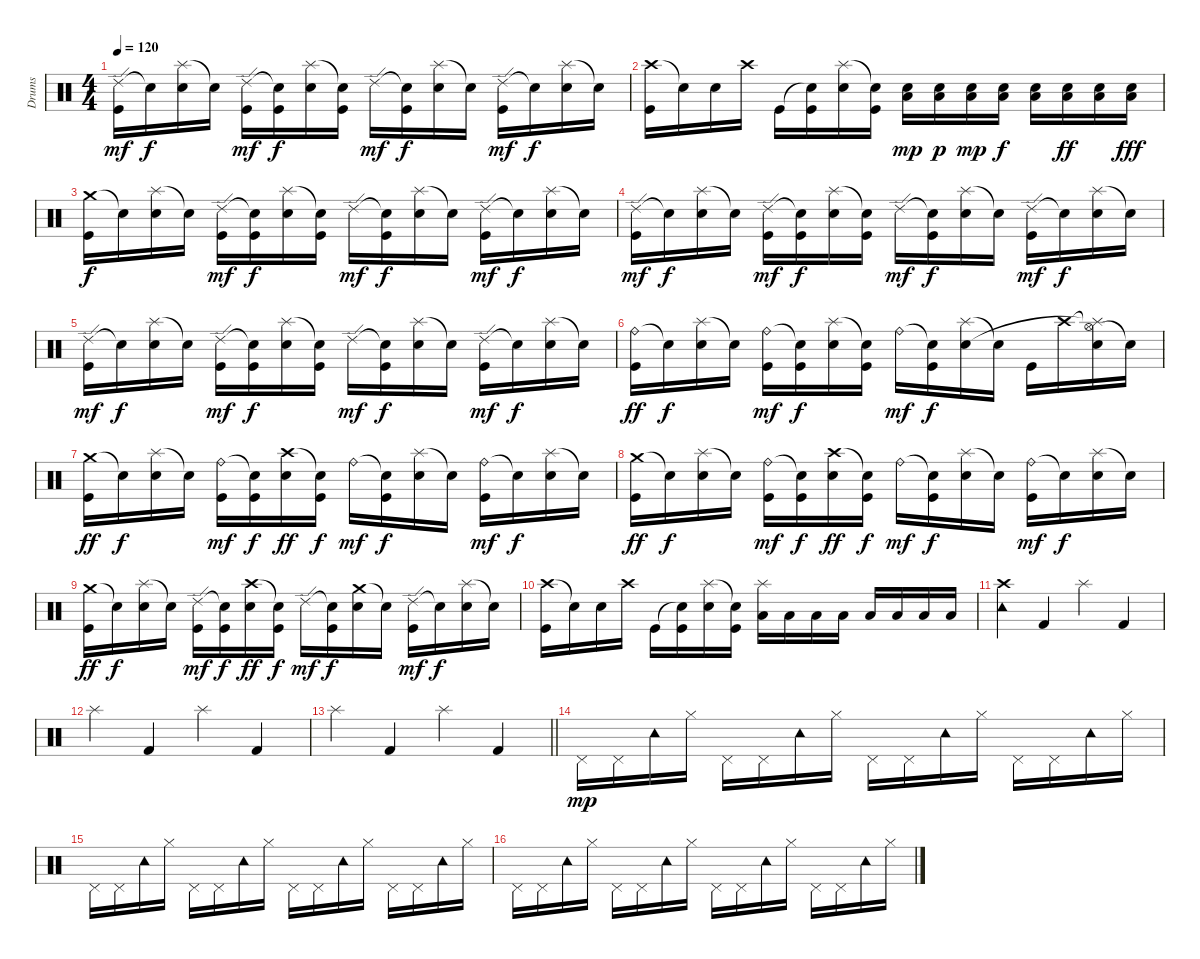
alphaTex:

\track ("Drums" "Drums") {instrument percussion}
\staff {score}
\articulation defaults
\ts (4 4)
\tempo 120
\clef neutral
\ks c
("Ride (edge) 2" "Kick (hit)").16{dy mf} "Snare (hit)"{t}.16{dy f} ("Splash (hit)" "Electric Snare (hit)").16 "Snare (hit)"{t}.16 ("Ride (edge) 2" "Kick (hit)").16{dy mf} ("Snare (hit)"{t} "Kick (hit)").16{dy f} ("Splash (hit)" "Electric Snare (hit)").16 ("Snare (hit)"{t} "Kick (hit)").16 "Ride (edge) 2".16{dy mf} ("Snare (hit)"{t} "Kick (hit)").16{dy f} ("Splash (hit)" "Electric Snare (hit)").16 "Snare (hit)"{t}.16 ("Ride (edge) 2" "Kick (hit)").16{dy mf} "Snare (hit)"{t}.16{dy f} ("Splash (hit)" "Electric Snare (hit)").16 "Snare (hit)"{t}.16 |
("Crash high (hit)" "Kick (hit)").16 "Snare (hit)"{t}.16 "Electric Snare (hit)".16 "Crash high (hit)".16 "Kick (hit)".16 ("Snare (hit)"{t} "Kick (hit)").16 ("Splash (hit)" "Electric Snare (hit)").16 ("Snare (hit)"{t} "Kick (hit)").16 ("Electric Snare (hit)" "Low Tom (hit)").16{dy mp} ("Electric Snare (hit)" "Low Tom (hit)").16{dy p} ("Electric Snare (hit)" "Low Tom (hit)").16{dy mp} ("Electric Snare (hit)" "Low Tom (hit)").16{dy f} ("Electric Snare (hit)" "Low Tom (hit)").16 ("Electric Snare (hit)" "Low Tom (hit)").16{dy ff} ("Electric Snare (hit)" "Low Tom (hit)").16 ("Electric Snare (hit)" "Low Tom (hit)").16{dy fff} |
("Crash medium (hit)" "Kick (hit)").16{dy f} "Snare (hit)"{t}.16 ("Splash (hit)" "Electric Snare (hit)").16 "Snare (hit)"{t}.16 ("Ride (edge) 2" "Kick (hit)").16{dy mf} ("Snare (hit)"{t} "Kick (hit)").16{dy f} ("Splash (hit)" "Electric Snare (hit)").16 ("Snare (hit)"{t} "Kick (hit)").16 "Ride (edge) 2".16{dy mf} ("Snare (hit)"{t} "Kick (hit)").16{dy f} ("Splash (hit)" "Electric Snare (hit)").16 "Snare (hit)"{t}.16 ("Ride (edge) 2" "Kick (hit)").16{dy mf} "Snare (hit)"{t}.16{dy f} ("Splash (hit)" "Electric Snare (hit)").16 "Snare (hit)"{t}.16 |
("Ride (edge) 2" "Kick (hit)").16{dy mf} "Snare (hit)"{t}.16{dy f} ("Splash (hit)" "Electric Snare (hit)").16 "Snare (hit)"{t}.16 ("Ride (edge) 2" "Kick (hit)").16{dy mf} ("Snare (hit)"{t} "Kick (hit)").16{dy f} ("Splash (hit)" "Electric Snare (hit)").16 ("Snare (hit)"{t} "Kick (hit)").16 "Ride (edge) 2".16{dy mf} ("Snare (hit)"{t} "Kick (hit)").16{dy f} ("Splash (hit)" "Electric Snare (hit)").16 "Snare (hit)"{t}.16 ("Ride (edge) 2" "Kick (hit)").16{dy mf} "Snare (hit)"{t}.16{dy f} ("Splash (hit)" "Electric Snare (hit)").16 "Snare (hit)"{t}.16 |
("Ride (edge) 2" "Kick (hit)").16{dy mf} "Snare (hit)"{t}.16{dy f} ("Splash (hit)" "Electric Snare (hit)").16 "Snare (hit)"{t}.16 ("Ride (edge) 2" "Kick (hit)").16{dy mf} ("Snare (hit)"{t} "Kick (hit)").16{dy f} ("Splash (hit)" "Electric Snare (hit)").16 ("Snare (hit)"{t} "Kick (hit)").16 "Ride (edge) 2".16{dy mf} ("Snare (hit)"{t} "Kick (hit)").16{dy f} ("Splash (hit)" "Electric Snare (hit)").16 "Snare (hit)"{t}.16 ("Ride (edge) 2" "Kick (hit)").16{dy mf} "Snare (hit)"{t}.16{dy f} ("Splash (hit)" "Electric Snare (hit)").16 "Snare (hit)"{t}.16 |
("Ride (bell)" "Kick (hit)").16{dy ff} "Snare (hit)"{t}.16{dy f} ("Splash (hit)" "Electric Snare (hit)").16 "Snare (hit)"{t}.16 ("Ride (bell)" "Kick (hit)").16{dy mf} ("Snare (hit)"{t} "Kick (hit)").16{dy f} ("Splash (hit)" "Electric Snare (hit)").16 ("Snare (hit)"{t} "Kick (hit)").16 "Ride (bell)".16{dy mf} ("Snare (hit)"{t} "Kick (hit)").16{dy f} ("Splash (hit)" "Electric Snare (hit)").16 "Snare (hit)"{t}.16 "Kick (hit)".16 "Crash high (hit)".16 ("Hi-Hat (open)"{t} "Splash (hit)"{t} "Electric Snare (hit)").16 "Snare (hit)"{t}.16 |
("Crash medium (hit)" "Kick (hit)").16{dy ff} "Snare (hit)"{t}.16{dy f} ("Splash (hit)" "Electric Snare (hit)").16 "Snare (hit)"{t}.16 ("Ride (bell)" "Kick (hit)").16{dy mf} ("Snare (hit)"{t} "Kick (hit)").16{dy f} ("Crash high (hit)" "Electric Snare (hit)").16{dy ff} ("Snare (hit)"{t} "Kick (hit)").16{dy f} "Ride (bell)".16{dy mf} ("Snare (hit)"{t} "Kick (hit)").16{dy f} ("Splash (hit)" "Electric Snare (hit)").16 "Snare (hit)"{t}.16 ("Ride (bell)" "Kick (hit)").16{dy mf} "Snare (hit)"{t}.16{dy f} ("Splash (hit)" "Electric Snare (hit)").16 "Snare (hit)"{t}.16 |
("Crash medium (hit)" "Kick (hit)").16{dy ff} "Snare (hit)"{t}.16{dy f} ("Splash (hit)" "Electric Snare (hit)").16 "Snare (hit)"{t}.16 ("Ride (bell)" "Kick (hit)").16{dy mf} ("Snare (hit)"{t} "Kick (hit)").16{dy f} ("Crash high (hit)" "Electric Snare (hit)").16{dy ff} ("Snare (hit)"{t} "Kick (hit)").16{dy f} "Ride (bell)".16{dy mf} ("Snare (hit)"{t} "Kick (hit)").16{dy f} ("Splash (hit)" "Electric Snare (hit)").16 "Snare (hit)"{t}.16 ("Ride (bell)" "Kick (hit)").16{dy mf} "Snare (hit)"{t}.16{dy f} ("Splash (hit)" "Electric Snare (hit)").16 "Snare (hit)"{t}.16 |
("Crash medium (hit)" "Kick (hit)").16{dy ff} "Snare (hit)"{t}.16{dy f} ("Splash (hit)" "Electric Snare (hit)").16 "Snare (hit)"{t}.16 ("Ride (edge) 2" "Kick (hit)").16{dy mf} ("Snare (hit)"{t} "Kick (hit)").16{dy f} ("Crash high (hit)" "Electric Snare (hit)").16{dy ff} ("Snare (hit)"{t} "Kick (hit)").16{dy f} "Ride (edge) 2".16{dy mf} ("Snare (hit)"{t} "Kick (hit)").16{dy f} ("Crash medium (hit)" "Electric Snare (hit)").16 "Snare (hit)"{t}.16 ("Ride (edge) 2" "Kick (hit)").16{dy mf} "Snare (hit)"{t}.16{dy f} ("Splash (hit)" "Electric Snare (hit)").16 "Snare (hit)"{t}.16 |
("Crash high (hit)" "Kick (hit)").16 "Snare (hit)"{t}.16 "Electric Snare (hit)".16 "Crash high (hit)".16 "Kick (hit)".16 ("Snare (hit)"{t} "Kick (hit)").16 ("Splash (hit)" "Electric Snare (hit)").16 ("Snare (hit)"{t} "Kick (hit)").16 ("Splash (hit)" "Low Tom (hit)").16 "Low Tom (hit)".16 "Low Tom (hit)".16 "Low Tom (hit)".16 "Low Floor Tom (hit)".16 "Low Floor Tom (hit)".16 "Low Floor Tom (hit)".16 "Low Floor Tom (hit)".16 |
("Crash high (hit)" "Tambourine (hit)").4 "Kick (hit) 2".4 "Splash (hit)".4 "Kick (hit) 2".4 |
"Splash (hit)".4 "Kick (hit) 2".4 "Splash (hit)".4 "Kick (hit) 2".4 |
\barLineRight lightlight "Splash (hit)".4 "Kick (hit) 2".4 "Splash (hit)".4 "Kick (hit) 2".4
|
\section ("" "")
"Pedal Hi-Hat (hit)".16{dy mp} "Pedal Hi-Hat (hit)".16 "Tambourine (hit)".16 "Hi-Hat (closed)".16 "Pedal Hi-Hat (hit)".16 "Pedal Hi-Hat (hit)".16 "Tambourine (hit)".16 "Hi-Hat (closed)".16 "Pedal Hi-Hat (hit)".16 "Pedal Hi-Hat (hit)".16 "Tambourine (hit)".16 "Hi-Hat (closed)".16 "Pedal Hi-Hat (hit)".16 "Pedal Hi-Hat (hit)".16 "Tambourine (hit)".16 "Hi-Hat (closed)".16 |
"Pedal Hi-Hat (hit)".16 "Pedal Hi-Hat (hit)".16 "Tambourine (hit)".16 "Hi-Hat (closed)".16 "Pedal Hi-Hat (hit)".16 "Pedal Hi-Hat (hit)".16 "Tambourine (hit)".16 "Hi-Hat (closed)".16 "Pedal Hi-Hat (hit)".16 "Pedal Hi-Hat (hit)".16 "Tambourine (hit)".16 "Hi-Hat (closed)".16 "Pedal Hi-Hat (hit)".16 "Pedal Hi-Hat (hit)".16 "Tambourine (hit)".16 "Hi-Hat (closed)".16 |
"Pedal Hi-Hat (hit)".16 "Pedal Hi-Hat (hit)".16 "Tambourine (hit)".16 "Hi-Hat (closed)".16 "Pedal Hi-Hat (hit)".16 "Pedal Hi-Hat (hit)".16 "Tambourine (hit)".16 "Hi-Hat (closed)".16 "Pedal Hi-Hat (hit)".16 "Pedal Hi-Hat (hit)".16 "Tambourine (hit)".16 "Hi-Hat (closed)".16 "Pedal Hi-Hat (hit)".16 "Pedal Hi-Hat (hit)".16 "Tambourine (hit)".16 "Hi-Hat (closed)".16
